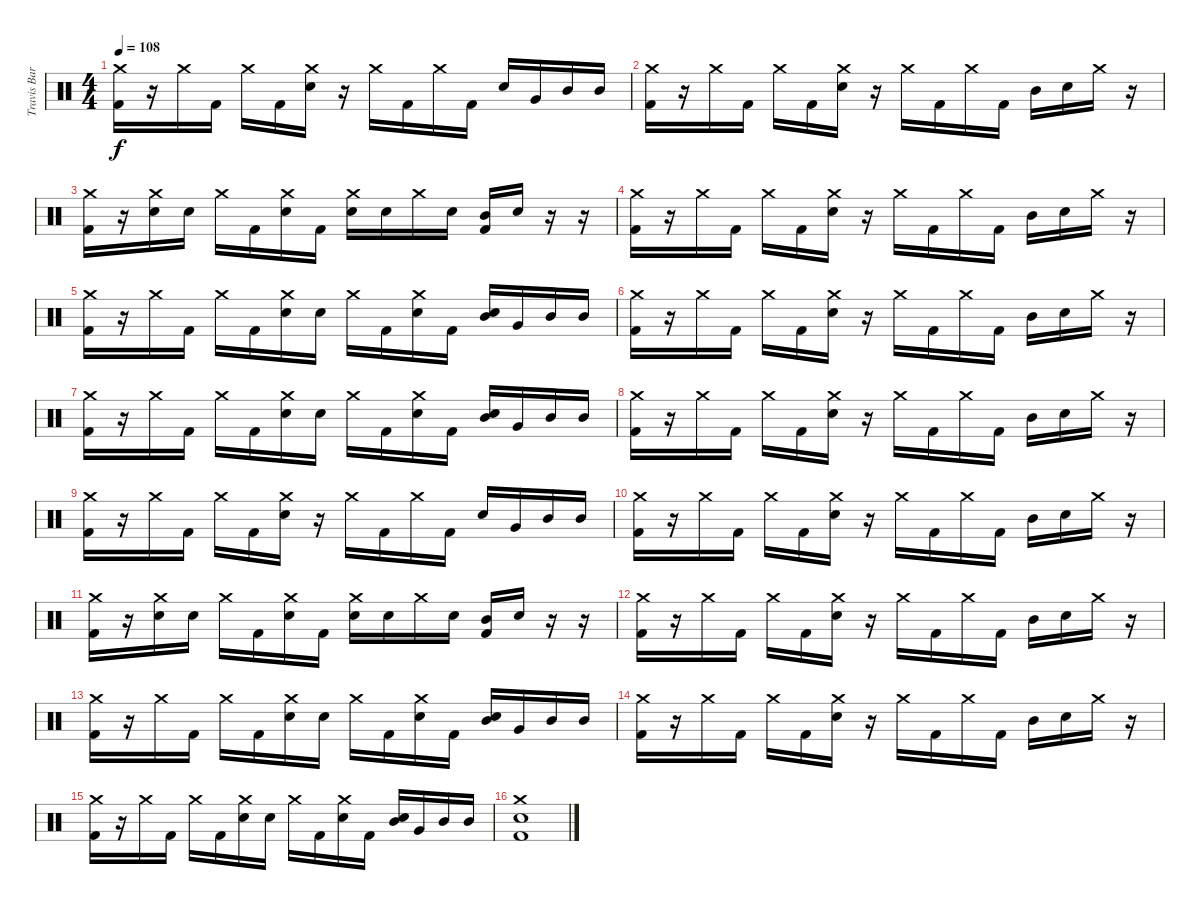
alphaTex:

\track ("Travis Barker" "Travis Bar") {instrument percussion}
\staff {score}
\articulation defaults
\ts (4 4)
\tempo 108
\clef neutral
\ks c
("Crash medium (hit)" "Kick (hit) 2").16{dy f} r.16 "Crash medium (hit)".16 "Kick (hit) 2".16 "Crash medium (hit)".16 "Kick (hit) 2".16 ("Crash medium (hit)" "Snare (hit) 2").16 r.16 "Crash medium (hit)".16 "Kick (hit) 2".16 "Crash medium (hit)".16 "Kick (hit) 2".16 "Snare (hit) 2".16 "Very Low Tom (hit)".16 "Mid Tom (hit)".16 "Mid Tom (hit)".16 |
("Crash medium (hit)" "Kick (hit) 2").16 r.16 "Crash medium (hit)".16 "Kick (hit) 2".16 "Crash medium (hit)".16 "Kick (hit) 2".16 ("Crash medium (hit)" "Snare (hit) 2").16 r.16 "Crash medium (hit)".16 "Kick (hit) 2".16 "Crash medium (hit)".16 "Kick (hit) 2".16 "Mid Tom (hit)".16 "Snare (hit) 2".16 "Crash medium (hit)".16 r.16 |
("Crash medium (hit)" "Kick (hit) 2").16 r.16 ("Crash medium (hit)" "Snare (hit) 2").16 "Snare (hit) 2".16 "Crash medium (hit)".16 "Kick (hit) 2".16 ("Crash medium (hit)" "Snare (hit) 2").16 "Kick (hit) 2".16 ("Crash medium (hit)" "Snare (hit) 2").16 "Snare (hit) 2".16 "Crash medium (hit)".16 "Snare (hit) 2".16 ("Mid Tom (hit)" "Kick (hit) 2").16 "Snare (hit) 2".16 r.16 r.16 |
("Crash medium (hit)" "Kick (hit) 2").16 r.16 "Crash medium (hit)".16 "Kick (hit) 2".16 "Crash medium (hit)".16 "Kick (hit) 2".16 ("Crash medium (hit)" "Snare (hit) 2").16 r.16 "Crash medium (hit)".16 "Kick (hit) 2".16 "Crash medium (hit)".16 "Kick (hit) 2".16 "Mid Tom (hit)".16 "Snare (hit) 2".16 "Crash medium (hit)".16 r.16 |
("Crash medium (hit)" "Kick (hit) 2").16 r.16 "Crash medium (hit)".16 "Kick (hit) 2".16 "Crash medium (hit)".16 "Kick (hit) 2".16 ("Crash medium (hit)" "Snare (hit) 2").16 "Snare (hit) 2".16 "Crash medium (hit)".16 "Kick (hit) 2".16 ("Crash medium (hit)" "Snare (hit) 2").16 "Kick (hit) 2".16 ("Snare (hit) 2" "Mid Tom (hit)").16 "Very Low Tom (hit)".16 "Mid Tom (hit)".16 "Mid Tom (hit)".16 |
("Crash medium (hit)" "Kick (hit) 2").16 r.16 "Crash medium (hit)".16 "Kick (hit) 2".16 "Crash medium (hit)".16 "Kick (hit) 2".16 ("Crash medium (hit)" "Snare (hit) 2").16 r.16 "Crash medium (hit)".16 "Kick (hit) 2".16 "Crash medium (hit)".16 "Kick (hit) 2".16 "Mid Tom (hit)".16 "Snare (hit) 2".16 "Crash medium (hit)".16 r.16 |
("Crash medium (hit)" "Kick (hit) 2").16 r.16 "Crash medium (hit)".16 "Kick (hit) 2".16 "Crash medium (hit)".16 "Kick (hit) 2".16 ("Crash medium (hit)" "Snare (hit) 2").16 "Snare (hit) 2".16 "Crash medium (hit)".16 "Kick (hit) 2".16 ("Crash medium (hit)" "Snare (hit) 2").16 "Kick (hit) 2".16 ("Snare (hit) 2" "Mid Tom (hit)").16 "Very Low Tom (hit)".16 "Mid Tom (hit)".16 "Mid Tom (hit)".16 |
("Crash medium (hit)" "Kick (hit) 2").16 r.16 "Crash medium (hit)".16 "Kick (hit) 2".16 "Crash medium (hit)".16 "Kick (hit) 2".16 ("Crash medium (hit)" "Snare (hit) 2").16 r.16 "Crash medium (hit)".16 "Kick (hit) 2".16 "Crash medium (hit)".16 "Kick (hit) 2".16 "Mid Tom (hit)".16 "Snare (hit) 2".16 "Crash medium (hit)".16 r.16 |
("Crash medium (hit)" "Kick (hit) 2").16 r.16 "Crash medium (hit)".16 "Kick (hit) 2".16 "Crash medium (hit)".16 "Kick (hit) 2".16 ("Crash medium (hit)" "Snare (hit) 2").16 r.16 "Crash medium (hit)".16 "Kick (hit) 2".16 "Crash medium (hit)".16 "Kick (hit) 2".16 "Snare (hit) 2".16 "Very Low Tom (hit)".16 "Mid Tom (hit)".16 "Mid Tom (hit)".16 |
("Crash medium (hit)" "Kick (hit) 2").16 r.16 "Crash medium (hit)".16 "Kick (hit) 2".16 "Crash medium (hit)".16 "Kick (hit) 2".16 ("Crash medium (hit)" "Snare (hit) 2").16 r.16 "Crash medium (hit)".16 "Kick (hit) 2".16 "Crash medium (hit)".16 "Kick (hit) 2".16 "Mid Tom (hit)".16 "Snare (hit) 2".16 "Crash medium (hit)".16 r.16 |
("Crash medium (hit)" "Kick (hit) 2").16 r.16 ("Crash medium (hit)" "Snare (hit) 2").16 "Snare (hit) 2".16 "Crash medium (hit)".16 "Kick (hit) 2".16 ("Crash medium (hit)" "Snare (hit) 2").16 "Kick (hit) 2".16 ("Crash medium (hit)" "Snare (hit) 2").16 "Snare (hit) 2".16 "Crash medium (hit)".16 "Snare (hit) 2".16 ("Mid Tom (hit)" "Kick (hit) 2").16 "Snare (hit) 2".16 r.16 r.16 |
("Crash medium (hit)" "Kick (hit) 2").16 r.16 "Crash medium (hit)".16 "Kick (hit) 2".16 "Crash medium (hit)".16 "Kick (hit) 2".16 ("Crash medium (hit)" "Snare (hit) 2").16 r.16 "Crash medium (hit)".16 "Kick (hit) 2".16 "Crash medium (hit)".16 "Kick (hit) 2".16 "Mid Tom (hit)".16 "Snare (hit) 2".16 "Crash medium (hit)".16 r.16 |
("Crash medium (hit)" "Kick (hit) 2").16 r.16 "Crash medium (hit)".16 "Kick (hit) 2".16 "Crash medium (hit)".16 "Kick (hit) 2".16 ("Crash medium (hit)" "Snare (hit) 2").16 "Snare (hit) 2".16 "Crash medium (hit)".16 "Kick (hit) 2".16 ("Crash medium (hit)" "Snare (hit) 2").16 "Kick (hit) 2".16 ("Snare (hit) 2" "Mid Tom (hit)").16 "Very Low Tom (hit)".16 "Mid Tom (hit)".16 "Mid Tom (hit)".16 |
("Crash medium (hit)" "Kick (hit) 2").16 r.16 "Crash medium (hit)".16 "Kick (hit) 2".16 "Crash medium (hit)".16 "Kick (hit) 2".16 ("Crash medium (hit)" "Snare (hit) 2").16 r.16 "Crash medium (hit)".16 "Kick (hit) 2".16 "Crash medium (hit)".16 "Kick (hit) 2".16 "Mid Tom (hit)".16 "Snare (hit) 2".16 "Crash medium (hit)".16 r.16 |
("Crash medium (hit)" "Kick (hit) 2").16 r.16 "Crash medium (hit)".16 "Kick (hit) 2".16 "Crash medium (hit)".16 "Kick (hit) 2".16 ("Crash medium (hit)" "Snare (hit) 2").16 "Snare (hit) 2".16 "Crash medium (hit)".16 "Kick (hit) 2".16 ("Crash medium (hit)" "Snare (hit) 2").16 "Kick (hit) 2".16 ("Snare (hit) 2" "Mid Tom (hit)").16 "Very Low Tom (hit)".16 "Mid Tom (hit)".16 "Mid Tom (hit)".16 |
("Crash medium (hit)" "Snare (hit) 2" "Kick (hit) 2").1
